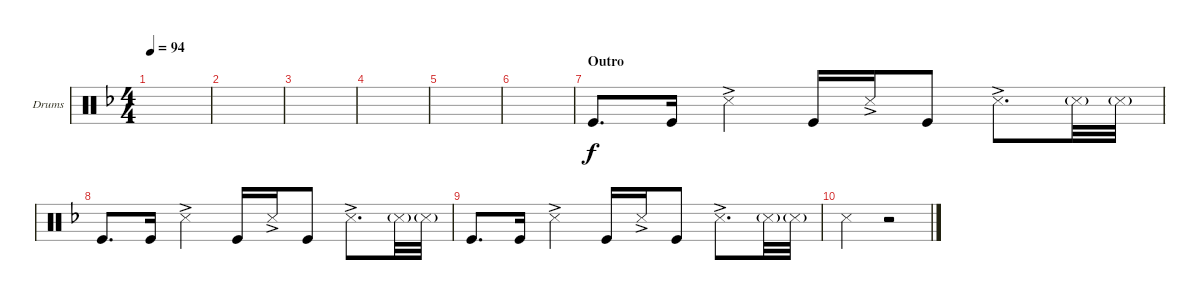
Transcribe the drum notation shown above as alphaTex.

\defaultSystemsLayout 4
\bracketExtendMode groupsimilarinstruments
\firstSystemTrackNameOrientation horizontal
\otherSystemsTrackNameOrientation horizontal
\track ("Drumkit" "Drums") {instrument percussion}
\staff {score}
\articulation defaults
\ts (4 4)
\tempo 94
\clef neutral
\ks dminor
|
|
|
|
|
|
\section ("" "Outro")
"Kick (hit)".8{d} "Kick (hit)".16 "Snare (side stick) 3"{ac}.4 "Kick (hit)".16 "Snare (side stick) 3"{ac}.16 "Kick (hit)".8 "Snare (side stick) 3"{ac}.8{d} "Snare (side stick) 3"{g}.32 "Snare (side stick) 3"{g}.32 |
"Kick (hit)".8{d} "Kick (hit)".16 "Snare (side stick) 3"{ac}.4 "Kick (hit)".16 "Snare (side stick) 3"{ac}.16 "Kick (hit)".8 "Snare (side stick) 3"{ac}.8{d} "Snare (side stick) 3"{g}.32 "Snare (side stick) 3"{g}.32 |
"Kick (hit)".8{d} "Kick (hit)".16 "Snare (side stick) 3"{ac}.4 "Kick (hit)".16 "Snare (side stick) 3"{ac}.16 "Kick (hit)".8 "Snare (side stick) 3"{ac}.8{d} "Snare (side stick) 3"{g}.32 "Snare (side stick) 3"{g}.32 |
"Snare (side stick) 3".2 r.2
